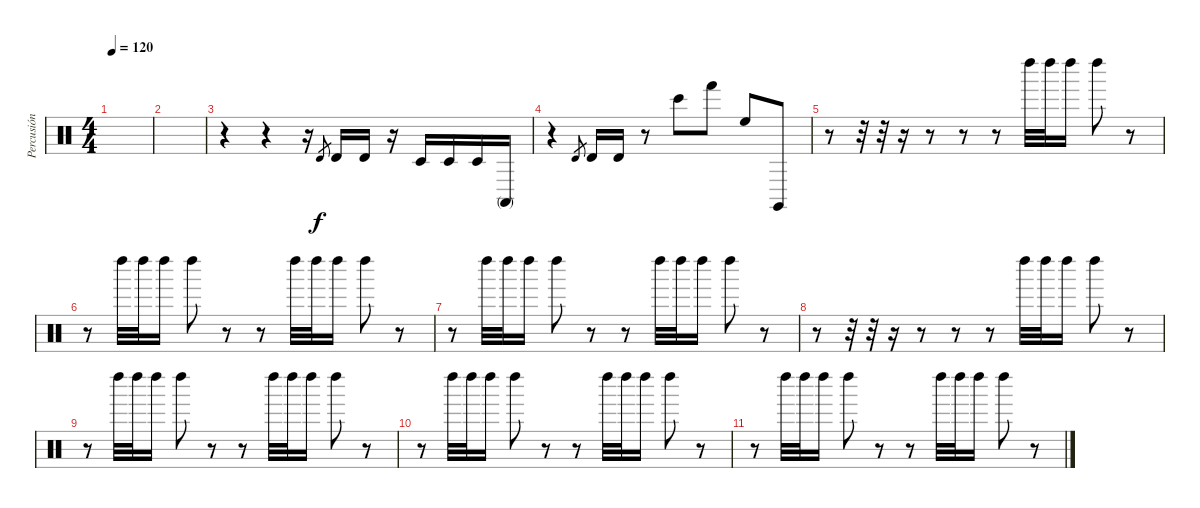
\track ("Percusión" "Percusión") {instrument percussion}
\staff {score}
\articulation defaults
\ts (4 4)
\tempo 120
\clef neutral
\ks c
|
|
r.4 r.4 r.16 "Timbale high (hit)".8{gr} "Timbale high (hit)".16 "Timbale high (hit)".16 r.16 "Timbale low (hit)".16 "Timbale low (hit)".16 "Timbale low (hit)".16 "Conga high (mute)".16 |
r.4 "Timbale high (hit)".8{gr} "Timbale high (hit)".16 "Timbale high (hit)".16 r.8 "Bongo High (hit)".8 "Hand (hit)".8 "High Floor Tom (hit)".8 "Claves (hit)".8 |
r.8 r.32 r.32 r.16 r.8 r.8 r.8 "Left Maraca (hit)".32 "Left Maraca (hit)".32 "Left Maraca (hit)".16 "Left Maraca (hit)".8 r.8 |
r.8 "Left Maraca (hit)".32 "Left Maraca (hit)".32 "Left Maraca (hit)".16 "Left Maraca (hit)".8 r.8 r.8 "Left Maraca (hit)".32 "Left Maraca (hit)".32 "Left Maraca (hit)".16 "Left Maraca (hit)".8 r.8 |
r.8 "Left Maraca (hit)".32 "Left Maraca (hit)".32 "Left Maraca (hit)".16 "Left Maraca (hit)".8 r.8 r.8 "Left Maraca (hit)".32 "Left Maraca (hit)".32 "Left Maraca (hit)".16 "Left Maraca (hit)".8 r.8 |
r.8 r.32 r.32 r.16 r.8 r.8 r.8 "Left Maraca (hit)".32 "Left Maraca (hit)".32 "Left Maraca (hit)".16 "Left Maraca (hit)".8 r.8 |
r.8 "Left Maraca (hit)".32 "Left Maraca (hit)".32 "Left Maraca (hit)".16 "Left Maraca (hit)".8 r.8 r.8 "Left Maraca (hit)".32 "Left Maraca (hit)".32 "Left Maraca (hit)".16 "Left Maraca (hit)".8 r.8 |
r.8 "Left Maraca (hit)".32 "Left Maraca (hit)".32 "Left Maraca (hit)".16 "Left Maraca (hit)".8 r.8 r.8 "Left Maraca (hit)".32 "Left Maraca (hit)".32 "Left Maraca (hit)".16 "Left Maraca (hit)".8 r.8 |
r.8 "Left Maraca (hit)".32 "Left Maraca (hit)".32 "Left Maraca (hit)".16 "Left Maraca (hit)".8 r.8 r.8 "Left Maraca (hit)".32 "Left Maraca (hit)".32 "Left Maraca (hit)".16 "Left Maraca (hit)".8 r.8
